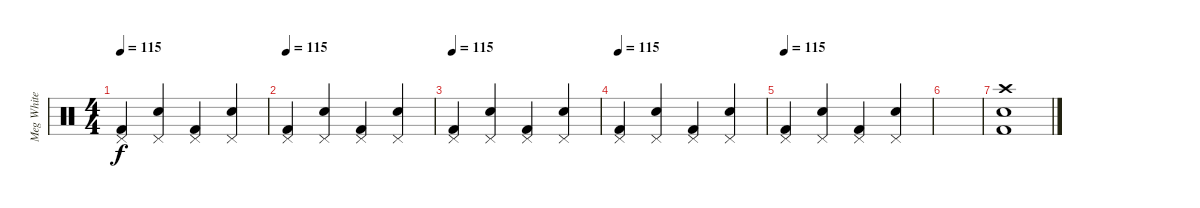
\track ("Meg White" "Meg White") {instrument percussion}
\staff {score}
\articulation defaults
\ts (4 4)
\tempo 115
\clef neutral
\ks c
("Kick (hit) 2" "Pedal Hi-Hat (hit)").4{dy f} ("Electric Snare (hit)" "Pedal Hi-Hat (hit)").4 ("Kick (hit) 2" "Pedal Hi-Hat (hit)").4 ("Electric Snare (hit)" "Pedal Hi-Hat (hit)").4 |
\tempo 115
("Kick (hit) 2" "Pedal Hi-Hat (hit)").4 ("Electric Snare (hit)" "Pedal Hi-Hat (hit)").4 ("Kick (hit) 2" "Pedal Hi-Hat (hit)").4 ("Electric Snare (hit)" "Pedal Hi-Hat (hit)").4 |
\tempo 115
("Kick (hit) 2" "Pedal Hi-Hat (hit)").4 ("Electric Snare (hit)" "Pedal Hi-Hat (hit)").4 ("Kick (hit) 2" "Pedal Hi-Hat (hit)").4 ("Electric Snare (hit)" "Pedal Hi-Hat (hit)").4 |
\tempo 115
("Kick (hit) 2" "Pedal Hi-Hat (hit)").4 ("Electric Snare (hit)" "Pedal Hi-Hat (hit)").4 ("Kick (hit) 2" "Pedal Hi-Hat (hit)").4 ("Electric Snare (hit)" "Pedal Hi-Hat (hit)").4 |
\tempo 115
("Kick (hit) 2" "Pedal Hi-Hat (hit)").4 ("Electric Snare (hit)" "Pedal Hi-Hat (hit)").4 ("Kick (hit) 2" "Pedal Hi-Hat (hit)").4 ("Electric Snare (hit)" "Pedal Hi-Hat (hit)").4 |
|
("Crash high (hit)" "Snare (hit) 2" "Kick (hit) 2").1
